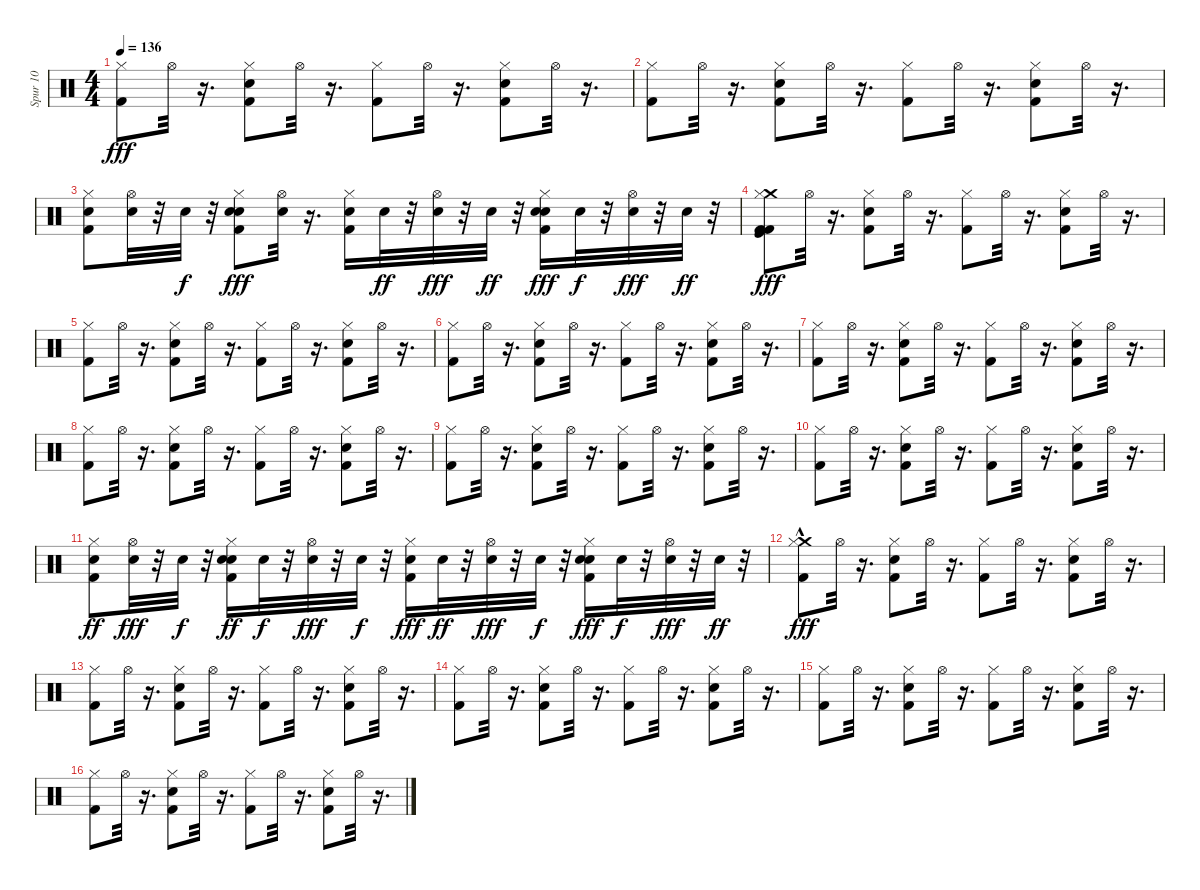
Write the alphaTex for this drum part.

\track ("Spur 10" "Spur 10") {instrument percussion}
\staff {score}
\articulation defaults
\ts (4 4)
\tempo 136
\clef neutral
\ks c
("Hi-Hat (closed)" "Kick (hit) 2").8{dy fff} "Hi-Hat (open)".32 r.16{d} ("Snare (hit) 2" "Hi-Hat (closed)" "Kick (hit) 2").8 "Hi-Hat (open)".32 r.16{d} ("Kick (hit) 2" "Hi-Hat (closed)").8 "Hi-Hat (open)".32 r.16{d} ("Snare (hit) 2" "Kick (hit) 2" "Hi-Hat (closed)").8 "Hi-Hat (open)".32 r.16{d} |
("Hi-Hat (closed)" "Kick (hit) 2").8 "Hi-Hat (open)".32 r.16{d} ("Kick (hit) 2" "Snare (hit) 2" "Hi-Hat (closed)").8 "Hi-Hat (open)".32 r.16{d} ("Hi-Hat (closed)" "Kick (hit) 2").8 "Hi-Hat (open)".32 r.16{d} ("Snare (hit) 2" "Kick (hit) 2" "Hi-Hat (closed)").8 "Hi-Hat (open)".32 r.16{d} |
("Snare (hit) 2" "Hi-Hat (closed)" "Kick (hit) 2").8 ("Snare (hit) 2" "Hi-Hat (open)").32 r.32 "Snare (hit) 2".32{dy f} r.32 ("Snare (hit) 2" "Snare (hit) 2" "Hi-Hat (closed)" "Kick (hit) 2").8{dy fff} ("Snare (hit) 2" "Hi-Hat (open)").32 r.16{d} ("Snare (hit) 2" "Hi-Hat (closed)" "Kick (hit) 2").16 "Snare (hit) 2".32{dy ff} r.32 ("Snare (hit) 2" "Hi-Hat (open)").32{dy fff} r.32 "Snare (hit) 2".32{dy ff} r.32 ("Snare (hit) 2" "Hi-Hat (closed)" "Kick (hit) 2" "Snare (hit) 2").16{dy fff} "Snare (hit) 2".32{dy f} r.32 ("Snare (hit) 2" "Hi-Hat (open)").32{dy fff} r.32 "Snare (hit) 2".32{dy ff} r.32 |
("Kick (hit) 2" "Kick (hit) 2" "Kick (hit)" "Crash medium (hit)" "Hi-Hat (closed)").8{dy fff} "Hi-Hat (open)".32 r.16{d} ("Hi-Hat (closed)" "Kick (hit) 2" "Snare (hit) 2").8 "Hi-Hat (open)".32 r.16{d} ("Hi-Hat (closed)" "Kick (hit) 2").8 "Hi-Hat (open)".32 r.16{d} ("Snare (hit) 2" "Kick (hit) 2" "Hi-Hat (closed)").8 "Hi-Hat (open)".32 r.16{d} |
("Hi-Hat (closed)" "Kick (hit) 2").8 "Hi-Hat (open)".32 r.16{d} ("Snare (hit) 2" "Hi-Hat (closed)" "Kick (hit) 2").8 "Hi-Hat (open)".32 r.16{d} ("Hi-Hat (closed)" "Kick (hit) 2").8 "Hi-Hat (open)".32 r.16{d} ("Snare (hit) 2" "Hi-Hat (closed)" "Kick (hit) 2").8 "Hi-Hat (open)".32 r.16{d} |
("Kick (hit) 2" "Hi-Hat (closed)").8 "Hi-Hat (open)".32 r.16{d} ("Hi-Hat (closed)" "Kick (hit) 2" "Snare (hit) 2").8 "Hi-Hat (open)".32 r.16{d} ("Hi-Hat (closed)" "Kick (hit) 2").8 "Hi-Hat (open)".32 r.16{d} ("Hi-Hat (closed)" "Kick (hit) 2" "Snare (hit) 2").8 "Hi-Hat (open)".32 r.16{d} |
("Kick (hit) 2" "Hi-Hat (closed)").8 "Hi-Hat (open)".32 r.16{d} ("Snare (hit) 2" "Kick (hit) 2" "Hi-Hat (closed)").8 "Hi-Hat (open)".32 r.16{d} ("Hi-Hat (closed)" "Kick (hit) 2").8 "Hi-Hat (open)".32 r.16{d} ("Kick (hit) 2" "Snare (hit) 2" "Hi-Hat (closed)").8 "Hi-Hat (open)".32 r.16{d} |
("Hi-Hat (closed)" "Kick (hit) 2").8 "Hi-Hat (open)".32 r.16{d} ("Snare (hit) 2" "Kick (hit) 2" "Hi-Hat (closed)").8 "Hi-Hat (open)".32 r.16{d} ("Hi-Hat (closed)" "Kick (hit) 2").8 "Hi-Hat (open)".32 r.16{d} ("Snare (hit) 2" "Hi-Hat (closed)" "Kick (hit) 2").8 "Hi-Hat (open)".32 r.16{d} |
("Hi-Hat (closed)" "Kick (hit) 2").8 "Hi-Hat (open)".32 r.16{d} ("Kick (hit) 2" "Snare (hit) 2" "Hi-Hat (closed)").8 "Hi-Hat (open)".32 r.16{d} ("Kick (hit) 2" "Hi-Hat (closed)").8 "Hi-Hat (open)".32 r.16{d} ("Hi-Hat (closed)" "Kick (hit) 2" "Snare (hit) 2").8 "Hi-Hat (open)".32 r.16{d} |
("Hi-Hat (closed)" "Kick (hit) 2").8 "Hi-Hat (open)".32 r.16{d} ("Hi-Hat (closed)" "Kick (hit) 2" "Snare (hit) 2").8 "Hi-Hat (open)".32 r.16{d} ("Hi-Hat (closed)" "Kick (hit) 2").8 "Hi-Hat (open)".32 r.16{d} ("Hi-Hat (closed)" "Kick (hit) 2" "Snare (hit) 2").8 "Hi-Hat (open)".32 r.16{d} |
("Kick (hit) 2" "Hi-Hat (closed)" "Snare (hit) 2").8{dy ff} ("Hi-Hat (open)" "Snare (hit) 2").32{dy fff} r.32 "Snare (hit) 2".32{dy f} r.32 ("Kick (hit) 2" "Snare (hit) 2" "Hi-Hat (closed)" "Snare (hit) 2").16{dy ff} "Snare (hit) 2".32{dy f} r.32 ("Hi-Hat (open)" "Snare (hit) 2").32{dy fff} r.32 "Snare (hit) 2".32{dy f} r.32 ("Snare (hit) 2" "Hi-Hat (closed)" "Kick (hit) 2").16{dy fff} "Snare (hit) 2".32{dy ff} r.32 ("Hi-Hat (open)" "Snare (hit) 2").32{dy fff} r.32 "Snare (hit) 2".32{dy f} r.32 ("Hi-Hat (closed)" "Snare (hit) 2" "Snare (hit) 2" "Kick (hit) 2").16{dy fff} "Snare (hit) 2".32{dy f} r.32 ("Hi-Hat (open)" "Snare (hit) 2").32{dy fff} r.32 "Snare (hit) 2".32{dy ff} r.32 |
("Crash medium (hit)"{hac} "Hi-Hat (closed)" "Kick (hit) 2").8{dy fff} "Hi-Hat (open)".32 r.16{d} ("Snare (hit) 2" "Hi-Hat (closed)" "Kick (hit) 2").8 "Hi-Hat (open)".32 r.16{d} ("Kick (hit) 2" "Hi-Hat (closed)").8 "Hi-Hat (open)".32 r.16{d} ("Snare (hit) 2" "Kick (hit) 2" "Hi-Hat (closed)").8 "Hi-Hat (open)".32 r.16{d} |
("Hi-Hat (closed)" "Kick (hit) 2").8 "Hi-Hat (open)".32 r.16{d} ("Kick (hit) 2" "Snare (hit) 2" "Hi-Hat (closed)").8 "Hi-Hat (open)".32 r.16{d} ("Hi-Hat (closed)" "Kick (hit) 2").8 "Hi-Hat (open)".32 r.16{d} ("Kick (hit) 2" "Snare (hit) 2" "Hi-Hat (closed)").8 "Hi-Hat (open)".32 r.16{d} |
("Kick (hit) 2" "Hi-Hat (closed)").8 "Hi-Hat (open)".32 r.16{d} ("Hi-Hat (closed)" "Snare (hit) 2" "Kick (hit) 2").8 "Hi-Hat (open)".32 r.16{d} ("Kick (hit) 2" "Hi-Hat (closed)").8 "Hi-Hat (open)".32 r.16{d} ("Kick (hit) 2" "Snare (hit) 2" "Hi-Hat (closed)").8 "Hi-Hat (open)".32 r.16{d} |
("Kick (hit) 2" "Hi-Hat (closed)").8 "Hi-Hat (open)".32 r.16{d} ("Hi-Hat (closed)" "Kick (hit) 2" "Snare (hit) 2").8 "Hi-Hat (open)".32 r.16{d} ("Hi-Hat (closed)" "Kick (hit) 2").8 "Hi-Hat (open)".32 r.16{d} ("Hi-Hat (closed)" "Kick (hit) 2" "Snare (hit) 2").8 "Hi-Hat (open)".32 r.16{d} |
("Hi-Hat (closed)" "Kick (hit) 2").8 "Hi-Hat (open)".32 r.16{d} ("Kick (hit) 2" "Hi-Hat (closed)" "Snare (hit) 2").8 "Hi-Hat (open)".32 r.16{d} ("Kick (hit) 2" "Hi-Hat (closed)").8 "Hi-Hat (open)".32 r.16{d} ("Snare (hit) 2" "Hi-Hat (closed)" "Kick (hit) 2").8 "Hi-Hat (open)".32 r.16{d}
